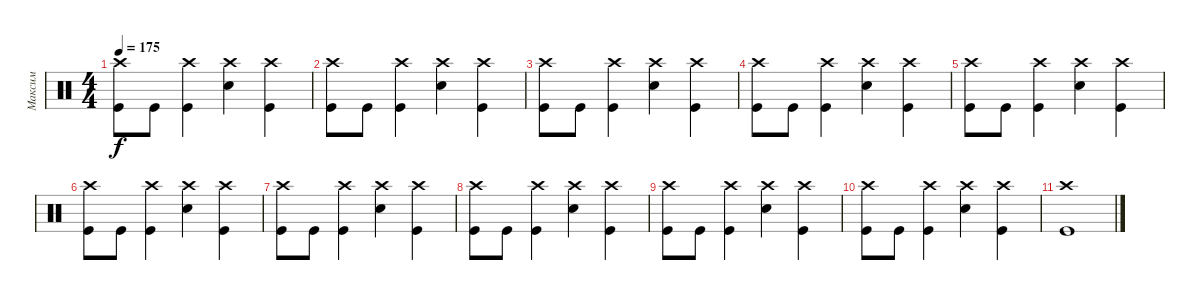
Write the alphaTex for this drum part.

\track ("Максим" "Максим") {instrument percussion}
\staff {score}
\articulation defaults
\ts (4 4)
\tempo 175
\clef neutral
\ks c
("Crash high (hit)" "Kick (hit)").8{dy f} "Kick (hit)".8 ("Kick (hit)" "Crash high (hit)").4 ("Crash high (hit)" "Snare (hit) 2").4 ("Kick (hit)" "Crash high (hit)").4 |
("Crash high (hit)" "Kick (hit)").8 "Kick (hit)".8 ("Kick (hit)" "Crash high (hit)").4 ("Crash high (hit)" "Snare (hit) 2").4 ("Kick (hit)" "Crash high (hit)").4 |
("Crash high (hit)" "Kick (hit)").8 "Kick (hit)".8 ("Kick (hit)" "Crash high (hit)").4 ("Crash high (hit)" "Snare (hit) 2").4 ("Kick (hit)" "Crash high (hit)").4 |
("Crash high (hit)" "Kick (hit)").8 "Kick (hit)".8 ("Kick (hit)" "Crash high (hit)").4 ("Crash high (hit)" "Snare (hit) 2").4 ("Kick (hit)" "Crash high (hit)").4 |
("Crash high (hit)" "Kick (hit)").8 "Kick (hit)".8 ("Kick (hit)" "Crash high (hit)").4 ("Crash high (hit)" "Snare (hit) 2").4 ("Kick (hit)" "Crash high (hit)").4 |
("Crash high (hit)" "Kick (hit)").8 "Kick (hit)".8 ("Kick (hit)" "Crash high (hit)").4 ("Crash high (hit)" "Snare (hit) 2").4 ("Kick (hit)" "Crash high (hit)").4 |
("Crash high (hit)" "Kick (hit)").8 "Kick (hit)".8 ("Kick (hit)" "Crash high (hit)").4 ("Crash high (hit)" "Snare (hit) 2").4 ("Kick (hit)" "Crash high (hit)").4 |
("Crash high (hit)" "Kick (hit)").8 "Kick (hit)".8 ("Kick (hit)" "Crash high (hit)").4 ("Crash high (hit)" "Snare (hit) 2").4 ("Kick (hit)" "Crash high (hit)").4 |
("Crash high (hit)" "Kick (hit)").8 "Kick (hit)".8 ("Kick (hit)" "Crash high (hit)").4 ("Crash high (hit)" "Snare (hit) 2").4 ("Kick (hit)" "Crash high (hit)").4 |
("Crash high (hit)" "Kick (hit)").8 "Kick (hit)".8 ("Kick (hit)" "Crash high (hit)").4 ("Crash high (hit)" "Snare (hit) 2").4 ("Kick (hit)" "Crash high (hit)").4 |
("Crash high (hit)" "Kick (hit)").1
